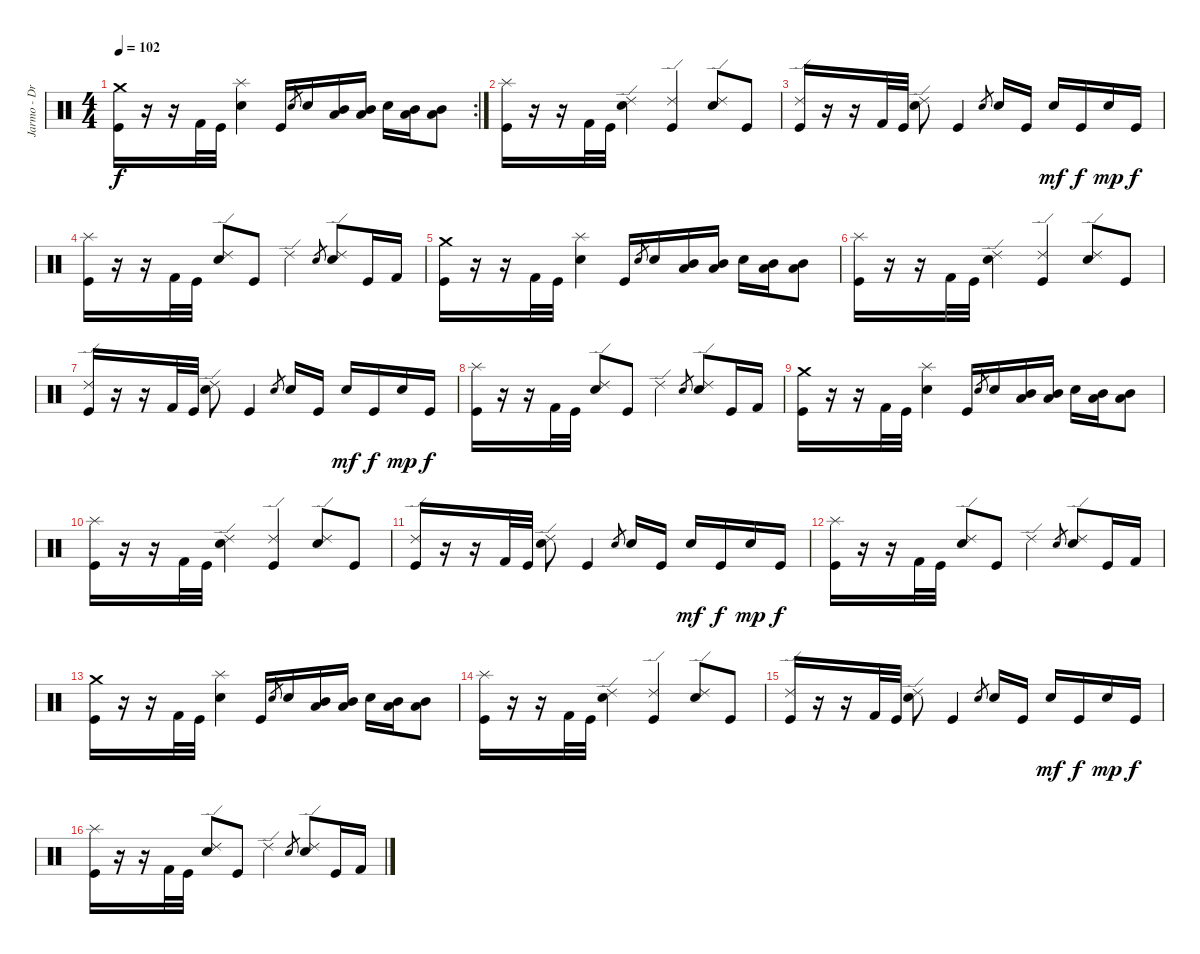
\track ("Jarmo - Drums" "Jarmo - Dr") {instrument percussion}
\staff {score}
\articulation defaults
\rc 2
\ts (4 4)
\tempo 102
\clef neutral
\ks c
("Kick (hit)" "Crash medium (hit)").16{dy f} r.16 r.16 "Kick (hit) 2".32 "Kick (hit)".32 ("Electric Snare (hit)" "Splash (hit)").4 "Kick (hit)".16 "Snare (hit) 2".8{gr} "Electric Snare (hit)".16 ("Mid Tom (hit)" "Low Tom (hit)").16 ("Mid Tom (hit)" "Low Tom (hit)").16 "Electric Snare (hit)".16 ("Mid Tom (hit)" "Low Tom (hit)").16 ("Mid Tom (hit)" "Low Tom (hit)").8 |
("Kick (hit)" "Splash (hit)").16 r.16 r.16 "Kick (hit) 2".32 "Kick (hit)".32 ("Electric Snare (hit)" "Ride (edge) 2").4 ("Kick (hit)" "Ride (edge) 2").4 ("Electric Snare (hit)" "Ride (edge) 2").8 "Kick (hit)".8 |
("Ride (edge) 2" "Kick (hit)").16 r.16 r.16 "Kick (hit) 2".32 "Kick (hit)".32 ("Electric Snare (hit)" "Ride (edge) 2").8 "Kick (hit)".4 "Snare (hit) 2".8{gr} "Electric Snare (hit)".16 "Kick (hit)".16 "Electric Snare (hit)".16{dy mf} "Kick (hit)".16{dy f} "Electric Snare (hit)".16{dy mp} "Kick (hit)".16{dy f} |
("Splash (hit)" "Kick (hit)").16 r.16 r.16 "Kick (hit) 2".32 "Kick (hit)".32 ("Electric Snare (hit)" "Ride (edge) 2").8 "Kick (hit)".8 "Ride (edge) 2".4 "Snare (hit) 2".8{gr} ("Electric Snare (hit)" "Ride (edge) 2").8 "Kick (hit)".16 "Kick (hit) 2".16 |
("Kick (hit)" "Crash medium (hit)").16 r.16 r.16 "Kick (hit) 2".32 "Kick (hit)".32 ("Electric Snare (hit)" "Splash (hit)").4 "Kick (hit)".16 "Snare (hit) 2".8{gr} "Electric Snare (hit)".16 ("Mid Tom (hit)" "Low Tom (hit)").16 ("Mid Tom (hit)" "Low Tom (hit)").16 "Electric Snare (hit)".16 ("Mid Tom (hit)" "Low Tom (hit)").16 ("Mid Tom (hit)" "Low Tom (hit)").8 |
("Kick (hit)" "Splash (hit)").16 r.16 r.16 "Kick (hit) 2".32 "Kick (hit)".32 ("Electric Snare (hit)" "Ride (edge) 2").4 ("Kick (hit)" "Ride (edge) 2").4 ("Electric Snare (hit)" "Ride (edge) 2").8 "Kick (hit)".8 |
("Ride (edge) 2" "Kick (hit)").16 r.16 r.16 "Kick (hit) 2".32 "Kick (hit)".32 ("Electric Snare (hit)" "Ride (edge) 2").8 "Kick (hit)".4 "Snare (hit) 2".8{gr} "Electric Snare (hit)".16 "Kick (hit)".16 "Electric Snare (hit)".16{dy mf} "Kick (hit)".16{dy f} "Electric Snare (hit)".16{dy mp} "Kick (hit)".16{dy f} |
("Splash (hit)" "Kick (hit)").16 r.16 r.16 "Kick (hit) 2".32 "Kick (hit)".32 ("Electric Snare (hit)" "Ride (edge) 2").8 "Kick (hit)".8 "Ride (edge) 2".4 "Snare (hit) 2".8{gr} ("Electric Snare (hit)" "Ride (edge) 2").8 "Kick (hit)".16 "Kick (hit) 2".16 |
("Kick (hit)" "Crash medium (hit)").16 r.16 r.16 "Kick (hit) 2".32 "Kick (hit)".32 ("Electric Snare (hit)" "Splash (hit)").4 "Kick (hit)".16 "Snare (hit) 2".8{gr} "Electric Snare (hit)".16 ("Mid Tom (hit)" "Low Tom (hit)").16 ("Mid Tom (hit)" "Low Tom (hit)").16 "Electric Snare (hit)".16 ("Mid Tom (hit)" "Low Tom (hit)").16 ("Mid Tom (hit)" "Low Tom (hit)").8 |
("Kick (hit)" "Splash (hit)").16 r.16 r.16 "Kick (hit) 2".32 "Kick (hit)".32 ("Electric Snare (hit)" "Ride (edge) 2").4 ("Kick (hit)" "Ride (edge) 2").4 ("Electric Snare (hit)" "Ride (edge) 2").8 "Kick (hit)".8 |
("Ride (edge) 2" "Kick (hit)").16 r.16 r.16 "Kick (hit) 2".32 "Kick (hit)".32 ("Electric Snare (hit)" "Ride (edge) 2").8 "Kick (hit)".4 "Snare (hit) 2".8{gr} "Electric Snare (hit)".16 "Kick (hit)".16 "Electric Snare (hit)".16{dy mf} "Kick (hit)".16{dy f} "Electric Snare (hit)".16{dy mp} "Kick (hit)".16{dy f} |
("Splash (hit)" "Kick (hit)").16 r.16 r.16 "Kick (hit) 2".32 "Kick (hit)".32 ("Electric Snare (hit)" "Ride (edge) 2").8 "Kick (hit)".8 "Ride (edge) 2".4 "Snare (hit) 2".8{gr} ("Electric Snare (hit)" "Ride (edge) 2").8 "Kick (hit)".16 "Kick (hit) 2".16 |
("Kick (hit)" "Crash medium (hit)").16 r.16 r.16 "Kick (hit) 2".32 "Kick (hit)".32 ("Electric Snare (hit)" "Splash (hit)").4 "Kick (hit)".16 "Snare (hit) 2".8{gr} "Electric Snare (hit)".16 ("Mid Tom (hit)" "Low Tom (hit)").16 ("Mid Tom (hit)" "Low Tom (hit)").16 "Electric Snare (hit)".16 ("Mid Tom (hit)" "Low Tom (hit)").16 ("Mid Tom (hit)" "Low Tom (hit)").8 |
("Kick (hit)" "Splash (hit)").16 r.16 r.16 "Kick (hit) 2".32 "Kick (hit)".32 ("Electric Snare (hit)" "Ride (edge) 2").4 ("Kick (hit)" "Ride (edge) 2").4 ("Electric Snare (hit)" "Ride (edge) 2").8 "Kick (hit)".8 |
("Ride (edge) 2" "Kick (hit)").16 r.16 r.16 "Kick (hit) 2".32 "Kick (hit)".32 ("Electric Snare (hit)" "Ride (edge) 2").8 "Kick (hit)".4 "Snare (hit) 2".8{gr} "Electric Snare (hit)".16 "Kick (hit)".16 "Electric Snare (hit)".16{dy mf} "Kick (hit)".16{dy f} "Electric Snare (hit)".16{dy mp} "Kick (hit)".16{dy f} |
("Splash (hit)" "Kick (hit)").16 r.16 r.16 "Kick (hit) 2".32 "Kick (hit)".32 ("Electric Snare (hit)" "Ride (edge) 2").8 "Kick (hit)".8 "Ride (edge) 2".4 "Snare (hit) 2".8{gr} ("Electric Snare (hit)" "Ride (edge) 2").8 "Kick (hit)".16 "Kick (hit) 2".16
